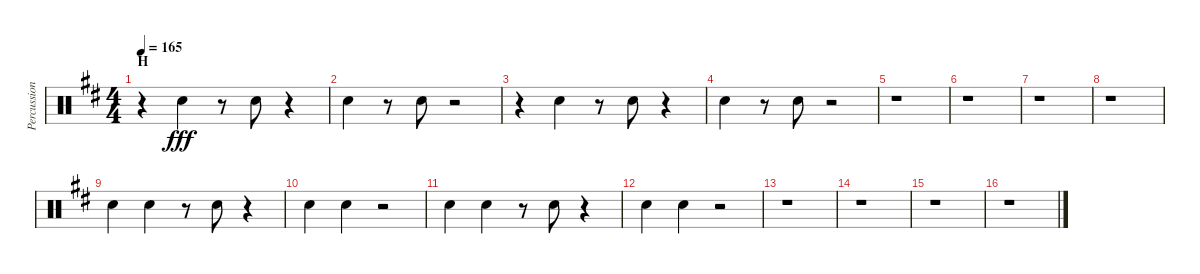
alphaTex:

\track ("Percussion" "Percussion") {instrument percussion}
\staff {score}
\articulation defaults
\ts (4 4)
\section ("" "H")
\tempo 165
\clef neutral
\ks d
r.4{dy fff} "Hand Clap (hit)".4 r.8 "Hand Clap (hit)".8 r.4 |
"Hand Clap (hit)".4 r.8 "Hand Clap (hit)".8 r.2 |
r.4 "Hand Clap (hit)".4 r.8 "Hand Clap (hit)".8 r.4 |
"Hand Clap (hit)".4 r.8 "Hand Clap (hit)".8 r.2 |
r.1 |
r.1 |
r.1 |
r.1 |
"Hand Clap (hit)".4 "Hand Clap (hit)".4 r.8 "Hand Clap (hit)".8 r.4 |
"Hand Clap (hit)".4 "Hand Clap (hit)".4 r.2 |
"Hand Clap (hit)".4 "Hand Clap (hit)".4 r.8 "Hand Clap (hit)".8 r.4 |
"Hand Clap (hit)".4 "Hand Clap (hit)".4 r.2 |
r.1 |
r.1 |
r.1 |
r.1
